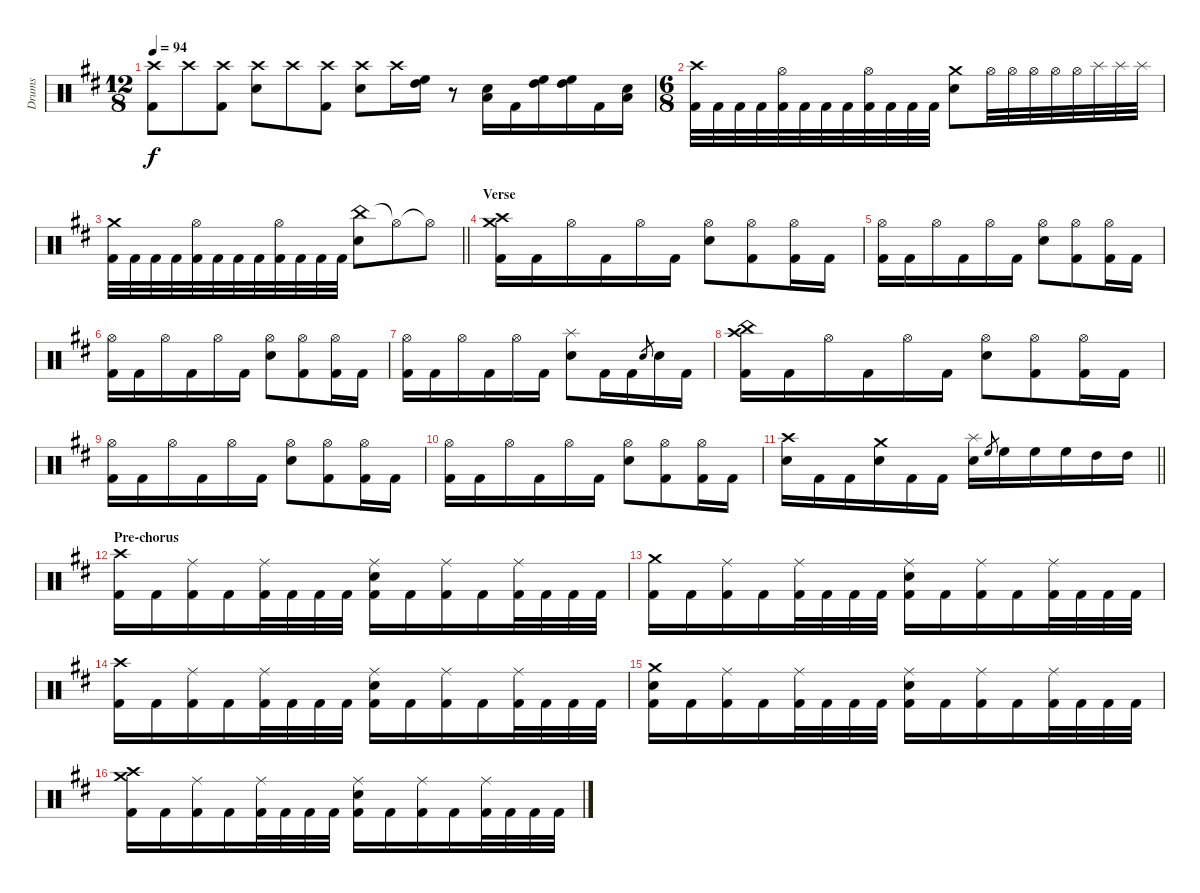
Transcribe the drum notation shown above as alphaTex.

\track ("Drums" "Drums") {instrument percussion}
\staff {score}
\articulation defaults
\ts (12 8)
\tempo 94
\clef neutral
\ks bminor
("Crash high (hit)" "Kick (hit) 2").8{dy f} "Crash high (hit)".8 ("Crash high (hit)" "Kick (hit) 2").8 ("Crash high (hit)" "Snare (hit) 2").8 "Crash high (hit)".8 ("Crash high (hit)" "Kick (hit) 2").8 ("Crash high (hit)" "Snare (hit) 2").8 "Crash high (hit)".16 ("High Tom (hit)" "High Floor Tom (hit)").16 r.8 ("Low Tom (hit)" "Snare (hit) 2").16 "Kick (hit) 2".16 ("High Floor Tom (hit)" "High Tom (hit)").16 ("High Floor Tom (hit)" "High Tom (hit)").16 "Kick (hit) 2".16 ("Low Tom (hit)" "Snare (hit) 2").16 |
\ts (6 8)
("Crash high (hit)" "Kick (hit) 2").32 "Kick (hit) 2".32 "Kick (hit) 2".32 "Kick (hit) 2".32 ("Hi-Hat (open)" "Kick (hit) 2").32 "Kick (hit) 2".32 "Kick (hit) 2".32 "Kick (hit) 2".32 ("Hi-Hat (open)" "Kick (hit) 2").32 "Kick (hit) 2".32 "Kick (hit) 2".32 "Kick (hit) 2".32 ("Crash medium (hit)" "Snare (hit) 2").8 "Hi-Hat (open)".32 "Hi-Hat (open)".32 "Hi-Hat (open)".32 "Hi-Hat (open)".32 "Hi-Hat (open)".32 "Splash (hit)".32 "Splash (hit)".32 "Splash (hit)".32 |
\barLineRight lightlight
("Crash medium (hit)" "Kick (hit) 2").32 "Kick (hit) 2".32 "Kick (hit) 2".32 "Kick (hit) 2".32 ("Hi-Hat (open)" "Kick (hit) 2").32 "Kick (hit) 2".32 "Kick (hit) 2".32 "Kick (hit) 2".32 ("Hi-Hat (open)" "Kick (hit) 2").32 "Kick (hit) 2".32 "Kick (hit) 2".32 "Kick (hit) 2".32 ("China (hit)" "Snare (hit) 2").8 "Hi-Hat (open)"{t}.8 "Hi-Hat (open)"{t}.8 |
\section ("" "Verse")
("Crash high (hit)" "Crash medium (hit)" "Kick (hit) 2").16 "Kick (hit) 2".16 "Hi-Hat (open)".16 "Kick (hit) 2".16 "Hi-Hat (open)".16 "Kick (hit) 2".16 ("Hi-Hat (open)" "Snare (hit) 2").8 ("Hi-Hat (open)" "Kick (hit) 2").8 ("Hi-Hat (open)" "Kick (hit) 2").16 "Kick (hit) 2".16 |
("Hi-Hat (open)" "Kick (hit) 2").16 "Kick (hit) 2".16 "Hi-Hat (open)".16 "Kick (hit) 2".16 "Hi-Hat (open)".16 "Kick (hit) 2".16 ("Hi-Hat (open)" "Snare (hit) 2").8 ("Hi-Hat (open)" "Kick (hit) 2").8 ("Hi-Hat (open)" "Kick (hit) 2").16 "Kick (hit) 2".16 |
("Hi-Hat (open)" "Kick (hit) 2").16 "Kick (hit) 2".16 "Hi-Hat (open)".16 "Kick (hit) 2".16 "Hi-Hat (open)".16 "Kick (hit) 2".16 ("Hi-Hat (open)" "Snare (hit) 2").8 ("Hi-Hat (open)" "Kick (hit) 2").8 ("Hi-Hat (open)" "Kick (hit) 2").16 "Kick (hit) 2".16 |
("Hi-Hat (open)" "Kick (hit) 2").16 "Kick (hit) 2".16 "Hi-Hat (open)".16 "Kick (hit) 2".16 "Hi-Hat (open)".16 "Kick (hit) 2".16 ("Splash (hit)" "Snare (hit) 2").8 "Kick (hit) 2".16 "Kick (hit) 2".16 "Snare (hit) 2".8{gr} "Snare (hit) 2".16 "Kick (hit) 2".16 |
("Crash high (hit)" "China (hit)" "Kick (hit) 2").16 "Kick (hit) 2".16 "Hi-Hat (open)".16 "Kick (hit) 2".16 "Hi-Hat (open)".16 "Kick (hit) 2".16 ("Hi-Hat (open)" "Snare (hit) 2").8 ("Hi-Hat (open)" "Kick (hit) 2").8 ("Hi-Hat (open)" "Kick (hit) 2").16 "Kick (hit) 2".16 |
("Hi-Hat (open)" "Kick (hit) 2").16 "Kick (hit) 2".16 "Hi-Hat (open)".16 "Kick (hit) 2".16 "Hi-Hat (open)".16 "Kick (hit) 2".16 ("Hi-Hat (open)" "Snare (hit) 2").8 ("Hi-Hat (open)" "Kick (hit) 2").8 ("Hi-Hat (open)" "Kick (hit) 2").16 "Kick (hit) 2".16 |
("Hi-Hat (open)" "Kick (hit) 2").16 "Kick (hit) 2".16 "Hi-Hat (open)".16 "Kick (hit) 2".16 "Hi-Hat (open)".16 "Kick (hit) 2".16 ("Hi-Hat (open)" "Snare (hit) 2").8 ("Hi-Hat (open)" "Kick (hit) 2").8 ("Hi-Hat (open)" "Kick (hit) 2").16 "Kick (hit) 2".16 |
\barLineRight lightlight
("Crash high (hit)" "Snare (hit) 2").16 "Kick (hit) 2".16 "Kick (hit) 2".16 ("Crash medium (hit)" "Snare (hit) 2").16 "Kick (hit) 2".16 "Kick (hit) 2".16 ("Splash (hit)" "Snare (hit) 2").16 "High Floor Tom (hit)".8{gr} "High Floor Tom (hit)".16 "High Floor Tom (hit)".16 "High Floor Tom (hit)".16 "High Tom (hit)".16 "High Tom (hit)".16 |
\section ("" "Pre-chorus")
("Crash high (hit)" "Kick (hit) 2").16 "Kick (hit) 2".16 ("Ride (middle)" "Kick (hit) 2").16 "Kick (hit) 2".16 ("Ride (middle)" "Kick (hit) 2").32 "Kick (hit) 2".32 "Kick (hit) 2".32 "Kick (hit) 2".32 ("Ride (middle)" "Snare (hit) 2" "Kick (hit) 2").16 "Kick (hit) 2".16 ("Ride (middle)" "Kick (hit) 2").16 "Kick (hit) 2".16 ("Ride (middle)" "Kick (hit) 2").32 "Kick (hit) 2".32 "Kick (hit) 2".32 "Kick (hit) 2".32 |
("Crash medium (hit)" "Kick (hit) 2").16 "Kick (hit) 2".16 ("Ride (middle)" "Kick (hit) 2").16 "Kick (hit) 2".16 ("Ride (middle)" "Kick (hit) 2").32 "Kick (hit) 2".32 "Kick (hit) 2".32 "Kick (hit) 2".32 ("Ride (middle)" "Snare (hit) 2" "Kick (hit) 2").16 "Kick (hit) 2".16 ("Ride (middle)" "Kick (hit) 2").16 "Kick (hit) 2".16 ("Ride (middle)" "Kick (hit) 2").32 "Kick (hit) 2".32 "Kick (hit) 2".32 "Kick (hit) 2".32 |
("Crash high (hit)" "Kick (hit) 2").16 "Kick (hit) 2".16 ("Ride (middle)" "Kick (hit) 2").16 "Kick (hit) 2".16 ("Ride (middle)" "Kick (hit) 2").32 "Kick (hit) 2".32 "Kick (hit) 2".32 "Kick (hit) 2".32 ("Ride (middle)" "Snare (hit) 2" "Kick (hit) 2").16 "Kick (hit) 2".16 ("Ride (middle)" "Kick (hit) 2").16 "Kick (hit) 2".16 ("Ride (middle)" "Kick (hit) 2").32 "Kick (hit) 2".32 "Kick (hit) 2".32 "Kick (hit) 2".32 |
("Crash medium (hit)" "Snare (hit) 2" "Kick (hit) 2").16 "Kick (hit) 2".16 ("Ride (middle)" "Kick (hit) 2").16 "Kick (hit) 2".16 ("Ride (middle)" "Kick (hit) 2").32 "Kick (hit) 2".32 "Kick (hit) 2".32 "Kick (hit) 2".32 ("Ride (middle)" "Snare (hit) 2" "Kick (hit) 2").16 "Kick (hit) 2".16 ("Ride (middle)" "Kick (hit) 2").16 "Kick (hit) 2".16 ("Ride (middle)" "Kick (hit) 2").32 "Kick (hit) 2".32 "Kick (hit) 2".32 "Kick (hit) 2".32 |
("Crash high (hit)" "Crash medium (hit)" "Kick (hit) 2").16 "Kick (hit) 2".16 ("Ride (middle)" "Kick (hit) 2").16 "Kick (hit) 2".16 ("Ride (middle)" "Kick (hit) 2").32 "Kick (hit) 2".32 "Kick (hit) 2".32 "Kick (hit) 2".32 ("Ride (middle)" "Snare (hit) 2" "Kick (hit) 2").16 "Kick (hit) 2".16 ("Ride (middle)" "Kick (hit) 2").16 "Kick (hit) 2".16 ("Ride (middle)" "Kick (hit) 2").32 "Kick (hit) 2".32 "Kick (hit) 2".32 "Kick (hit) 2".32
